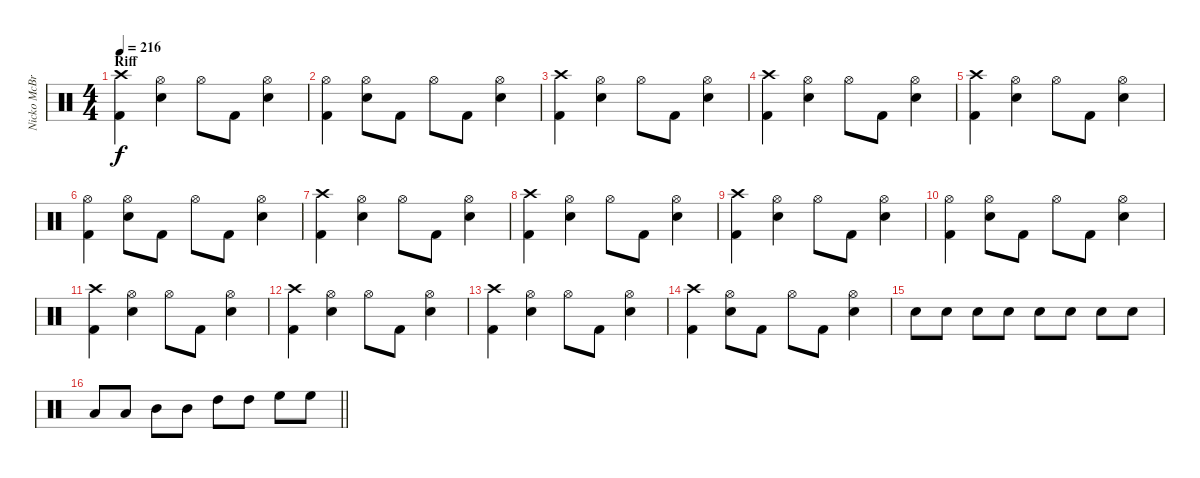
\track ("Nicko McBrain" "Nicko McBr") {instrument percussion}
\staff {score}
\articulation defaults
\ts (4 4)
\section ("" "Riff")
\tempo 216
\clef neutral
\ks c
("Crash high (hit)" "Kick (hit) 2").4{dy f} ("Hi-Hat (open)" "Snare (hit) 2").4 "Hi-Hat (open)".8 "Kick (hit) 2".8 ("Hi-Hat (open)" "Snare (hit) 2").4 |
("Hi-Hat (open)" "Kick (hit) 2").4 ("Hi-Hat (open)" "Snare (hit) 2").8 "Kick (hit) 2".8 "Hi-Hat (open)".8 "Kick (hit) 2".8 ("Hi-Hat (open)" "Snare (hit) 2").4 |
("Crash high (hit)" "Kick (hit) 2").4 ("Hi-Hat (open)" "Snare (hit) 2").4 "Hi-Hat (open)".8 "Kick (hit) 2".8 ("Hi-Hat (open)" "Snare (hit) 2").4 |
("Crash high (hit)" "Kick (hit) 2").4 ("Hi-Hat (open)" "Snare (hit) 2").4 "Hi-Hat (open)".8 "Kick (hit) 2".8 ("Hi-Hat (open)" "Snare (hit) 2").4 |
("Crash high (hit)" "Kick (hit) 2").4 ("Hi-Hat (open)" "Snare (hit) 2").4 "Hi-Hat (open)".8 "Kick (hit) 2".8 ("Hi-Hat (open)" "Snare (hit) 2").4 |
("Hi-Hat (open)" "Kick (hit) 2").4 ("Hi-Hat (open)" "Snare (hit) 2").8 "Kick (hit) 2".8 "Hi-Hat (open)".8 "Kick (hit) 2".8 ("Hi-Hat (open)" "Snare (hit) 2").4 |
("Crash high (hit)" "Kick (hit) 2").4 ("Hi-Hat (open)" "Snare (hit) 2").4 "Hi-Hat (open)".8 "Kick (hit) 2".8 ("Hi-Hat (open)" "Snare (hit) 2").4 |
("Crash high (hit)" "Kick (hit) 2").4 ("Hi-Hat (open)" "Snare (hit) 2").4 "Hi-Hat (open)".8 "Kick (hit) 2".8 ("Hi-Hat (open)" "Snare (hit) 2").4 |
("Crash high (hit)" "Kick (hit) 2").4 ("Hi-Hat (open)" "Snare (hit) 2").4 "Hi-Hat (open)".8 "Kick (hit) 2".8 ("Hi-Hat (open)" "Snare (hit) 2").4 |
("Hi-Hat (open)" "Kick (hit) 2").4 ("Hi-Hat (open)" "Snare (hit) 2").8 "Kick (hit) 2".8 "Hi-Hat (open)".8 "Kick (hit) 2".8 ("Hi-Hat (open)" "Snare (hit) 2").4 |
("Crash high (hit)" "Kick (hit) 2").4 ("Hi-Hat (open)" "Snare (hit) 2").4 "Hi-Hat (open)".8 "Kick (hit) 2".8 ("Hi-Hat (open)" "Snare (hit) 2").4 |
("Crash high (hit)" "Kick (hit) 2").4 ("Hi-Hat (open)" "Snare (hit) 2").4 "Hi-Hat (open)".8 "Kick (hit) 2".8 ("Hi-Hat (open)" "Snare (hit) 2").4 |
("Crash high (hit)" "Kick (hit) 2").4 ("Hi-Hat (open)" "Snare (hit) 2").4 "Hi-Hat (open)".8 "Kick (hit) 2".8 ("Hi-Hat (open)" "Snare (hit) 2").4 |
("Crash high (hit)" "Kick (hit) 2").4 ("Hi-Hat (open)" "Snare (hit) 2").8 "Kick (hit) 2".8 "Hi-Hat (open)".8 "Kick (hit) 2".8 ("Hi-Hat (open)" "Snare (hit) 2").4 |
"Snare (hit) 2".8 "Snare (hit) 2".8 "Snare (hit) 2".8 "Snare (hit) 2".8 "Snare (hit) 2".8 "Snare (hit) 2".8 "Snare (hit) 2".8 "Snare (hit) 2".8 |
\barLineRight lightlight "Low Tom (hit)".8 "Low Tom (hit)".8 "Mid Tom (hit)".8 "Mid Tom (hit)".8 "High Tom (hit)".8 "High Tom (hit)".8 "High Floor Tom (hit)".8 "High Floor Tom (hit)".8
